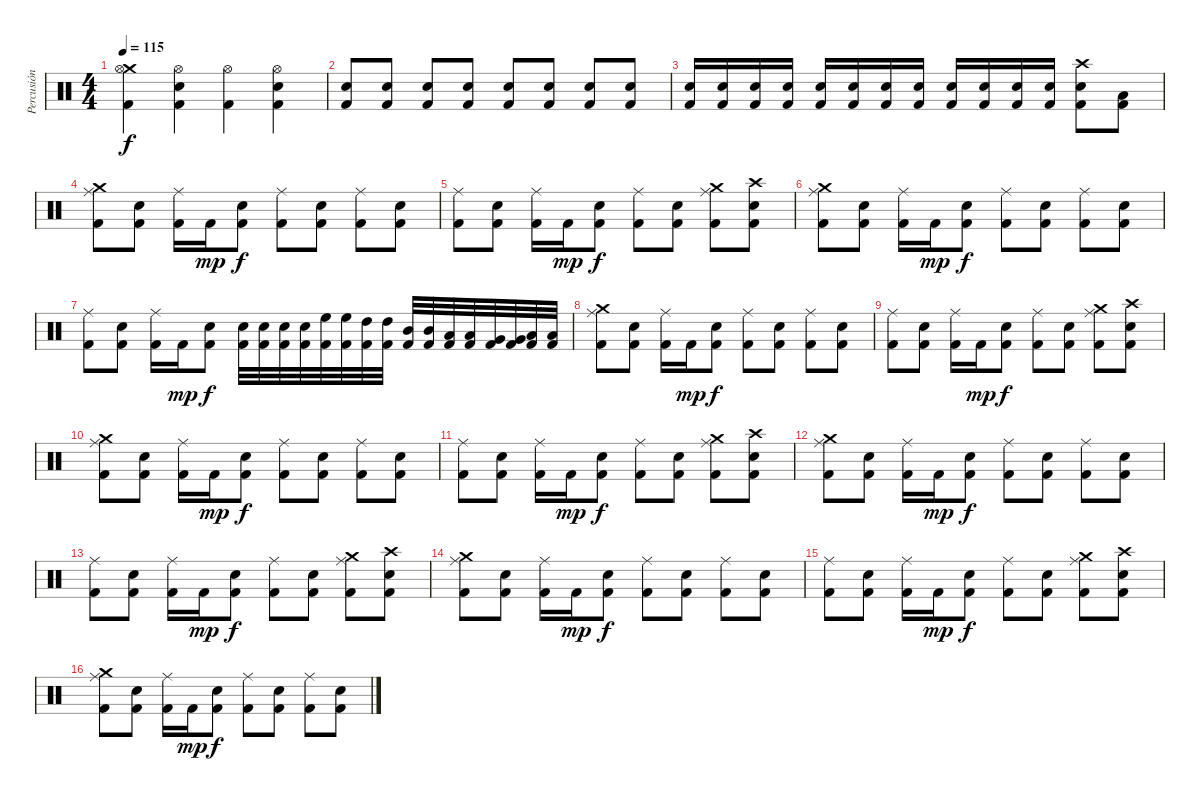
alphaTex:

\track ("Percusión" "Percusión") {instrument percussion}
\staff {score}
\articulation defaults
\ts (4 4)
\tempo 115
\clef neutral
\ks c
("Crash medium (hit)" "Hi-Hat (open)" "Kick (hit) 2").4{dy f} ("Hi-Hat (open)" "Snare (hit) 2" "Kick (hit) 2").4 ("Hi-Hat (open)" "Kick (hit) 2").4 ("Hi-Hat (open)" "Snare (hit) 2" "Kick (hit) 2").4 |
("Snare (hit) 2" "Kick (hit) 2").8 ("Snare (hit) 2" "Kick (hit) 2").8 ("Snare (hit) 2" "Kick (hit) 2").8 ("Snare (hit) 2" "Kick (hit) 2").8 ("Snare (hit) 2" "Kick (hit) 2").8 ("Snare (hit) 2" "Kick (hit) 2").8 ("Snare (hit) 2" "Kick (hit) 2").8 ("Snare (hit) 2" "Kick (hit) 2").8 |
("Snare (hit) 2" "Kick (hit) 2").16 ("Snare (hit) 2" "Kick (hit) 2").16 ("Snare (hit) 2" "Kick (hit) 2").16 ("Snare (hit) 2" "Kick (hit) 2").16 ("Snare (hit) 2" "Kick (hit) 2").16 ("Snare (hit) 2" "Kick (hit) 2").16 ("Snare (hit) 2" "Kick (hit) 2").16 ("Snare (hit) 2" "Kick (hit) 2").16 ("Snare (hit) 2" "Kick (hit) 2").16 ("Snare (hit) 2" "Kick (hit) 2").16 ("Snare (hit) 2" "Kick (hit) 2").16 ("Snare (hit) 2" "Kick (hit) 2").16 ("Crash high (hit)" "Snare (hit) 2" "Kick (hit) 2").8 ("Low Tom (hit)" "Kick (hit) 2").8 |
("Ride (middle)" "Crash medium (hit)" "Kick (hit) 2").8 ("Snare (hit) 2" "Kick (hit) 2").8 ("Ride (middle)" "Kick (hit) 2").16 "Kick (hit) 2".16{dy mp} ("Snare (hit) 2" "Kick (hit) 2").8{dy f} ("Ride (middle)" "Kick (hit) 2").8 ("Snare (hit) 2" "Kick (hit) 2").8 ("Ride (middle)" "Kick (hit) 2").8 ("Snare (hit) 2" "Kick (hit) 2").8 |
("Ride (middle)" "Kick (hit) 2").8 ("Snare (hit) 2" "Kick (hit) 2").8 ("Ride (middle)" "Kick (hit) 2").16 "Kick (hit) 2".16{dy mp} ("Snare (hit) 2" "Kick (hit) 2").8{dy f} ("Ride (middle)" "Kick (hit) 2").8 ("Snare (hit) 2" "Kick (hit) 2").8 ("Crash medium (hit)" "Ride (middle)" "Kick (hit) 2").8 ("Crash high (hit)" "Snare (hit) 2" "Kick (hit) 2").8 |
("Ride (middle)" "Crash medium (hit)" "Kick (hit) 2").8 ("Snare (hit) 2" "Kick (hit) 2").8 ("Ride (middle)" "Kick (hit) 2").16 "Kick (hit) 2".16{dy mp} ("Snare (hit) 2" "Kick (hit) 2").8{dy f} ("Ride (middle)" "Kick (hit) 2").8 ("Snare (hit) 2" "Kick (hit) 2").8 ("Ride (middle)" "Kick (hit) 2").8 ("Snare (hit) 2" "Kick (hit) 2").8 |
("Ride (middle)" "Kick (hit) 2").8 ("Snare (hit) 2" "Kick (hit) 2").8 ("Ride (middle)" "Kick (hit) 2").16 "Kick (hit) 2".16{dy mp} ("Snare (hit) 2" "Kick (hit) 2").8{dy f} ("Electric Snare (hit)" "Kick (hit) 2").32 ("Electric Snare (hit)" "Kick (hit) 2").32 ("Snare (hit) 2" "Kick (hit) 2").32 ("Snare (hit) 2" "Kick (hit) 2").32 ("High Floor Tom (hit)" "Kick (hit) 2").32 ("High Floor Tom (hit)" "Kick (hit) 2").32 ("High Tom (hit)" "Kick (hit) 2").32 ("High Tom (hit)" "Kick (hit) 2").32 ("Mid Tom (hit)" "Kick (hit) 2").32 ("Mid Tom (hit)" "Kick (hit) 2").32 ("Low Tom (hit)" "Kick (hit) 2").32 ("Low Tom (hit)" "Kick (hit) 2").32 ("Very Low Tom (hit)" "Kick (hit) 2").32 ("Very Low Tom (hit)" "Kick (hit) 2").32 ("Low Floor Tom (hit)" "Kick (hit) 2").32 ("Low Floor Tom (hit)" "Kick (hit) 2").32 |
("Ride (middle)" "Crash medium (hit)" "Kick (hit) 2").8 ("Snare (hit) 2" "Kick (hit) 2").8 ("Ride (middle)" "Kick (hit) 2").16 "Kick (hit) 2".16{dy mp} ("Snare (hit) 2" "Kick (hit) 2").8{dy f} ("Ride (middle)" "Kick (hit) 2").8 ("Snare (hit) 2" "Kick (hit) 2").8 ("Ride (middle)" "Kick (hit) 2").8 ("Snare (hit) 2" "Kick (hit) 2").8 |
("Ride (middle)" "Kick (hit) 2").8 ("Snare (hit) 2" "Kick (hit) 2").8 ("Ride (middle)" "Kick (hit) 2").16 "Kick (hit) 2".16{dy mp} ("Snare (hit) 2" "Kick (hit) 2").8{dy f} ("Ride (middle)" "Kick (hit) 2").8 ("Snare (hit) 2" "Kick (hit) 2").8 ("Crash medium (hit)" "Ride (middle)" "Kick (hit) 2").8 ("Crash high (hit)" "Snare (hit) 2" "Kick (hit) 2").8 |
("Ride (middle)" "Crash medium (hit)" "Kick (hit) 2").8 ("Snare (hit) 2" "Kick (hit) 2").8 ("Ride (middle)" "Kick (hit) 2").16 "Kick (hit) 2".16{dy mp} ("Snare (hit) 2" "Kick (hit) 2").8{dy f} ("Ride (middle)" "Kick (hit) 2").8 ("Snare (hit) 2" "Kick (hit) 2").8 ("Ride (middle)" "Kick (hit) 2").8 ("Snare (hit) 2" "Kick (hit) 2").8 |
("Ride (middle)" "Kick (hit) 2").8 ("Snare (hit) 2" "Kick (hit) 2").8 ("Ride (middle)" "Kick (hit) 2").16 "Kick (hit) 2".16{dy mp} ("Snare (hit) 2" "Kick (hit) 2").8{dy f} ("Ride (middle)" "Kick (hit) 2").8 ("Snare (hit) 2" "Kick (hit) 2").8 ("Crash medium (hit)" "Ride (middle)" "Kick (hit) 2").8 ("Crash high (hit)" "Snare (hit) 2" "Kick (hit) 2").8 |
("Ride (middle)" "Crash medium (hit)" "Kick (hit) 2").8 ("Snare (hit) 2" "Kick (hit) 2").8 ("Ride (middle)" "Kick (hit) 2").16 "Kick (hit) 2".16{dy mp} ("Snare (hit) 2" "Kick (hit) 2").8{dy f} ("Ride (middle)" "Kick (hit) 2").8 ("Snare (hit) 2" "Kick (hit) 2").8 ("Ride (middle)" "Kick (hit) 2").8 ("Snare (hit) 2" "Kick (hit) 2").8 |
("Ride (middle)" "Kick (hit) 2").8 ("Snare (hit) 2" "Kick (hit) 2").8 ("Ride (middle)" "Kick (hit) 2").16 "Kick (hit) 2".16{dy mp} ("Snare (hit) 2" "Kick (hit) 2").8{dy f} ("Ride (middle)" "Kick (hit) 2").8 ("Snare (hit) 2" "Kick (hit) 2").8 ("Crash medium (hit)" "Ride (middle)" "Kick (hit) 2").8 ("Crash high (hit)" "Snare (hit) 2" "Kick (hit) 2").8 |
("Ride (middle)" "Crash medium (hit)" "Kick (hit) 2").8 ("Snare (hit) 2" "Kick (hit) 2").8 ("Ride (middle)" "Kick (hit) 2").16 "Kick (hit) 2".16{dy mp} ("Snare (hit) 2" "Kick (hit) 2").8{dy f} ("Ride (middle)" "Kick (hit) 2").8 ("Snare (hit) 2" "Kick (hit) 2").8 ("Ride (middle)" "Kick (hit) 2").8 ("Snare (hit) 2" "Kick (hit) 2").8 |
("Ride (middle)" "Kick (hit) 2").8 ("Snare (hit) 2" "Kick (hit) 2").8 ("Ride (middle)" "Kick (hit) 2").16 "Kick (hit) 2".16{dy mp} ("Snare (hit) 2" "Kick (hit) 2").8{dy f} ("Ride (middle)" "Kick (hit) 2").8 ("Snare (hit) 2" "Kick (hit) 2").8 ("Crash medium (hit)" "Ride (middle)" "Kick (hit) 2").8 ("Crash high (hit)" "Snare (hit) 2" "Kick (hit) 2").8 |
("Ride (middle)" "Crash medium (hit)" "Kick (hit) 2").8 ("Snare (hit) 2" "Kick (hit) 2").8 ("Ride (middle)" "Kick (hit) 2").16 "Kick (hit) 2".16{dy mp} ("Snare (hit) 2" "Kick (hit) 2").8{dy f} ("Ride (middle)" "Kick (hit) 2").8 ("Snare (hit) 2" "Kick (hit) 2").8 ("Ride (middle)" "Kick (hit) 2").8 ("Snare (hit) 2" "Kick (hit) 2").8
